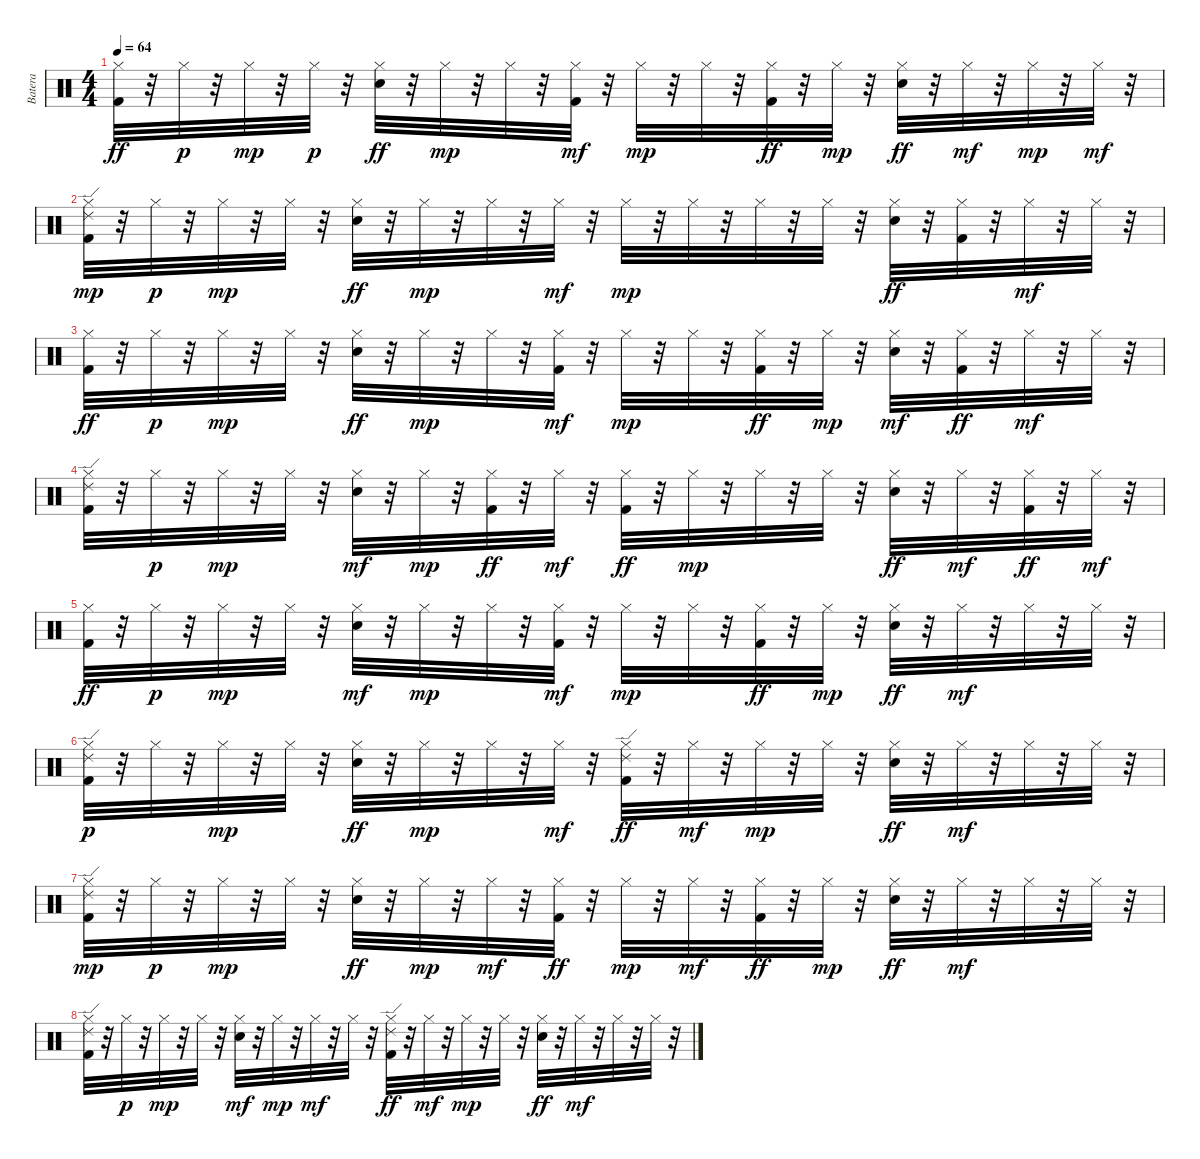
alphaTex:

\track ("Batera" "Batera") {instrument percussion}
\staff {score}
\articulation defaults
\ts (4 4)
\tempo 64
\clef neutral
\ks c
("Hi-Hat (closed)" "Kick (hit) 2").32{dy ff} r.32 "Hi-Hat (closed)".32{dy p} r.32 "Hi-Hat (closed)".32{dy mp} r.32 "Hi-Hat (closed)".32{dy p} r.32 ("Hi-Hat (closed)" "Snare (hit) 2").32{dy ff} r.32 "Hi-Hat (closed)".32{dy mp} r.32 "Hi-Hat (closed)".32 r.32 ("Hi-Hat (closed)" "Kick (hit) 2").32{dy mf} r.32 "Hi-Hat (closed)".32{dy mp} r.32 "Hi-Hat (closed)".32 r.32 ("Hi-Hat (closed)" "Kick (hit) 2").32{dy ff} r.32 "Hi-Hat (closed)".32{dy mp} r.32 ("Hi-Hat (closed)" "Snare (hit) 2").32{dy ff} r.32 "Hi-Hat (closed)".32{dy mf} r.32 "Hi-Hat (closed)".32{dy mp} r.32 "Hi-Hat (closed)".32{dy mf} r.32 |
("Hi-Hat (closed)" "Kick (hit) 2" "Ride (edge) 2").32{dy mp} r.32 "Hi-Hat (closed)".32{dy p} r.32 "Hi-Hat (closed)".32{dy mp} r.32 "Hi-Hat (closed)".32 r.32 ("Hi-Hat (closed)" "Snare (hit) 2").32{dy ff} r.32 "Hi-Hat (closed)".32{dy mp} r.32 "Hi-Hat (closed)".32 r.32 "Hi-Hat (closed)".32{dy mf} r.32 "Hi-Hat (closed)".32{dy mp} r.32 "Hi-Hat (closed)".32 r.32 "Hi-Hat (closed)".32 r.32 "Hi-Hat (closed)".32 r.32 ("Hi-Hat (closed)" "Snare (hit) 2").32{dy ff} r.32 ("Hi-Hat (closed)" "Kick (hit) 2").32 r.32 "Hi-Hat (closed)".32{dy mf} r.32 "Hi-Hat (closed)".32 r.32 |
("Hi-Hat (closed)" "Kick (hit) 2").32{dy ff} r.32 "Hi-Hat (closed)".32{dy p} r.32 "Hi-Hat (closed)".32{dy mp} r.32 "Hi-Hat (closed)".32 r.32 ("Hi-Hat (closed)" "Snare (hit) 2").32{dy ff} r.32 "Hi-Hat (closed)".32{dy mp} r.32 "Hi-Hat (closed)".32 r.32 ("Hi-Hat (closed)" "Kick (hit) 2").32{dy mf} r.32 "Hi-Hat (closed)".32{dy mp} r.32 "Hi-Hat (closed)".32 r.32 ("Hi-Hat (closed)" "Kick (hit) 2").32{dy ff} r.32 "Hi-Hat (closed)".32{dy mp} r.32 ("Hi-Hat (closed)" "Snare (hit) 2").32{dy mf} r.32 ("Hi-Hat (closed)" "Kick (hit) 2").32{dy ff} r.32 "Hi-Hat (closed)".32{dy mf} r.32 "Hi-Hat (closed)".32 r.32 |
("Hi-Hat (closed)" "Kick (hit) 2" "Ride (edge) 2").32 r.32 "Hi-Hat (closed)".32{dy p} r.32 "Hi-Hat (closed)".32{dy mp} r.32 "Hi-Hat (closed)".32 r.32 ("Hi-Hat (closed)" "Snare (hit) 2").32{dy mf} r.32 "Hi-Hat (closed)".32{dy mp} r.32 ("Hi-Hat (closed)" "Kick (hit) 2").32{dy ff} r.32 "Hi-Hat (closed)".32{dy mf} r.32 ("Hi-Hat (closed)" "Kick (hit) 2").32{dy ff} r.32 "Hi-Hat (closed)".32{dy mp} r.32 "Hi-Hat (closed)".32 r.32 "Hi-Hat (closed)".32 r.32 ("Hi-Hat (closed)" "Snare (hit) 2").32{dy ff} r.32 "Hi-Hat (closed)".32{dy mf} r.32 ("Hi-Hat (closed)" "Kick (hit) 2").32{dy ff} r.32 "Hi-Hat (closed)".32{dy mf} r.32 |
("Hi-Hat (closed)" "Kick (hit) 2").32{dy ff} r.32 "Hi-Hat (closed)".32{dy p} r.32 "Hi-Hat (closed)".32{dy mp} r.32 "Hi-Hat (closed)".32 r.32 ("Hi-Hat (closed)" "Snare (hit) 2").32{dy mf} r.32 "Hi-Hat (closed)".32{dy mp} r.32 "Hi-Hat (closed)".32 r.32 ("Hi-Hat (closed)" "Kick (hit) 2").32{dy mf} r.32 "Hi-Hat (closed)".32{dy mp} r.32 "Hi-Hat (closed)".32 r.32 ("Hi-Hat (closed)" "Kick (hit) 2").32{dy ff} r.32 "Hi-Hat (closed)".32{dy mp} r.32 ("Hi-Hat (closed)" "Snare (hit) 2").32{dy ff} r.32 "Hi-Hat (closed)".32{dy mf} r.32 "Hi-Hat (closed)".32 r.32 "Hi-Hat (closed)".32 r.32 |
("Hi-Hat (closed)" "Kick (hit) 2" "Ride (edge) 2").32{dy p} r.32 "Hi-Hat (closed)".32 r.32 "Hi-Hat (closed)".32{dy mp} r.32 "Hi-Hat (closed)".32 r.32 ("Hi-Hat (closed)" "Snare (hit) 2").32{dy ff} r.32 "Hi-Hat (closed)".32{dy mp} r.32 "Hi-Hat (closed)".32 r.32 "Hi-Hat (closed)".32{dy mf} r.32 ("Hi-Hat (closed)" "Ride (edge) 2" "Kick (hit) 2").32{dy ff} r.32 "Hi-Hat (closed)".32{dy mf} r.32 "Hi-Hat (closed)".32{dy mp} r.32 "Hi-Hat (closed)".32 r.32 ("Hi-Hat (closed)" "Snare (hit) 2").32{dy ff} r.32 "Hi-Hat (closed)".32{dy mf} r.32 "Hi-Hat (closed)".32 r.32 "Hi-Hat (closed)".32 r.32 |
("Hi-Hat (closed)" "Kick (hit) 2" "Ride (edge) 2").32{dy mp} r.32 "Hi-Hat (closed)".32{dy p} r.32 "Hi-Hat (closed)".32{dy mp} r.32 "Hi-Hat (closed)".32 r.32 ("Hi-Hat (closed)" "Snare (hit) 2").32{dy ff} r.32 "Hi-Hat (closed)".32{dy mp} r.32 "Hi-Hat (closed)".32{dy mf} r.32 ("Hi-Hat (closed)" "Kick (hit) 2").32{dy ff} r.32 "Hi-Hat (closed)".32{dy mp} r.32 "Hi-Hat (closed)".32{dy mf} r.32 ("Hi-Hat (closed)" "Kick (hit) 2").32{dy ff} r.32 "Hi-Hat (closed)".32{dy mp} r.32 ("Hi-Hat (closed)" "Snare (hit) 2").32{dy ff} r.32 "Hi-Hat (closed)".32{dy mf} r.32 "Hi-Hat (closed)".32 r.32 "Hi-Hat (closed)".32 r.32 |
("Hi-Hat (closed)" "Kick (hit) 2" "Ride (edge) 2").32 r.32 "Hi-Hat (closed)".32{dy p} r.32 "Hi-Hat (closed)".32{dy mp} r.32 "Hi-Hat (closed)".32 r.32 ("Hi-Hat (closed)" "Snare (hit) 2").32{dy mf} r.32 "Hi-Hat (closed)".32{dy mp} r.32 "Hi-Hat (closed)".32{dy mf} r.32 "Hi-Hat (closed)".32 r.32 ("Hi-Hat (closed)" "Ride (edge) 2" "Kick (hit) 2").32{dy ff} r.32 "Hi-Hat (closed)".32{dy mf} r.32 "Hi-Hat (closed)".32{dy mp} r.32 "Hi-Hat (closed)".32 r.32 ("Hi-Hat (closed)" "Snare (hit) 2").32{dy ff} r.32 "Hi-Hat (closed)".32{dy mf} r.32 "Hi-Hat (closed)".32 r.32 "Hi-Hat (closed)".32 r.32
